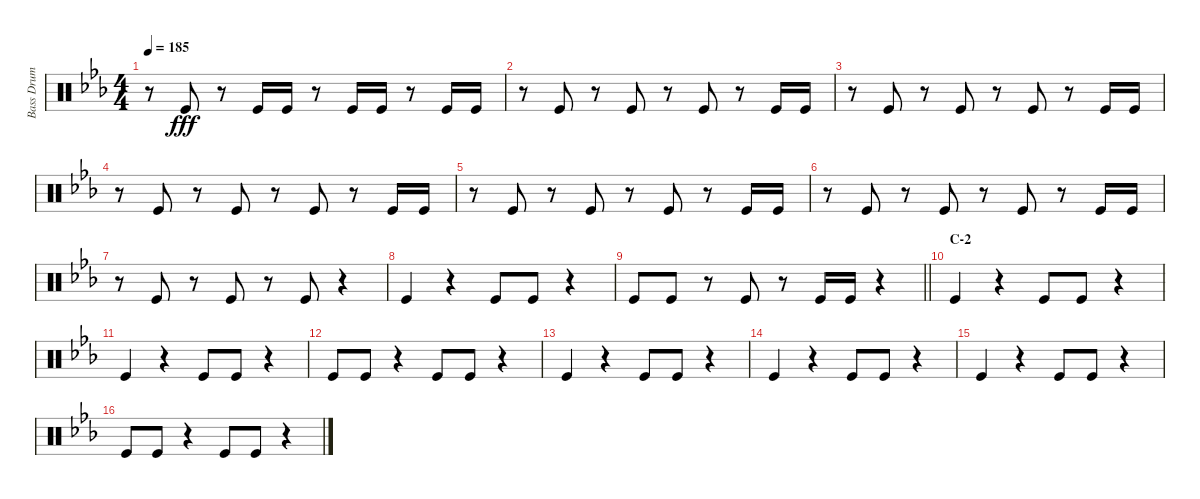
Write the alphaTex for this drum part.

\track ("Bass Drum" "Bass Drum") {instrument percussion}
\staff {score}
\articulation defaults
\ts (4 4)
\tempo 185
\clef neutral
\ks eb
r.8{dy fff} "Kick (hit)".8 r.8 "Kick (hit)".16 "Kick (hit)".16 r.8 "Kick (hit)".16 "Kick (hit)".16 r.8 "Kick (hit)".16 "Kick (hit)".16 |
r.8 "Kick (hit)".8 r.8 "Kick (hit)".8 r.8 "Kick (hit)".8 r.8 "Kick (hit)".16 "Kick (hit)".16 |
r.8 "Kick (hit)".8 r.8 "Kick (hit)".8 r.8 "Kick (hit)".8 r.8 "Kick (hit)".16 "Kick (hit)".16 |
r.8 "Kick (hit)".8 r.8 "Kick (hit)".8 r.8 "Kick (hit)".8 r.8 "Kick (hit)".16 "Kick (hit)".16 |
r.8 "Kick (hit)".8 r.8 "Kick (hit)".8 r.8 "Kick (hit)".8 r.8 "Kick (hit)".16 "Kick (hit)".16 |
r.8 "Kick (hit)".8 r.8 "Kick (hit)".8 r.8 "Kick (hit)".8 r.8 "Kick (hit)".16 "Kick (hit)".16 |
r.8 "Kick (hit)".8 r.8 "Kick (hit)".8 r.8 "Kick (hit)".8 r.4 |
"Kick (hit)".4 r.4 "Kick (hit)".8 "Kick (hit)".8 r.4 |
\barLineRight lightlight "Kick (hit)".8 "Kick (hit)".8
r.8 "Kick (hit)".8 r.8 "Kick (hit)".16 "Kick (hit)".16 r.4 |
\section ("" "C-2")
"Kick (hit)".4 r.4 "Kick (hit)".8 "Kick (hit)".8 r.4 |
"Kick (hit)".4 r.4 "Kick (hit)".8 "Kick (hit)".8 r.4 |
"Kick (hit)".8 "Kick (hit)".8 r.4 "Kick (hit)".8 "Kick (hit)".8 r.4 |
"Kick (hit)".4 r.4 "Kick (hit)".8 "Kick (hit)".8 r.4 |
"Kick (hit)".4 r.4 "Kick (hit)".8 "Kick (hit)".8 r.4 |
"Kick (hit)".4 r.4 "Kick (hit)".8 "Kick (hit)".8 r.4 |
"Kick (hit)".8 "Kick (hit)".8 r.4 "Kick (hit)".8 "Kick (hit)".8 r.4
